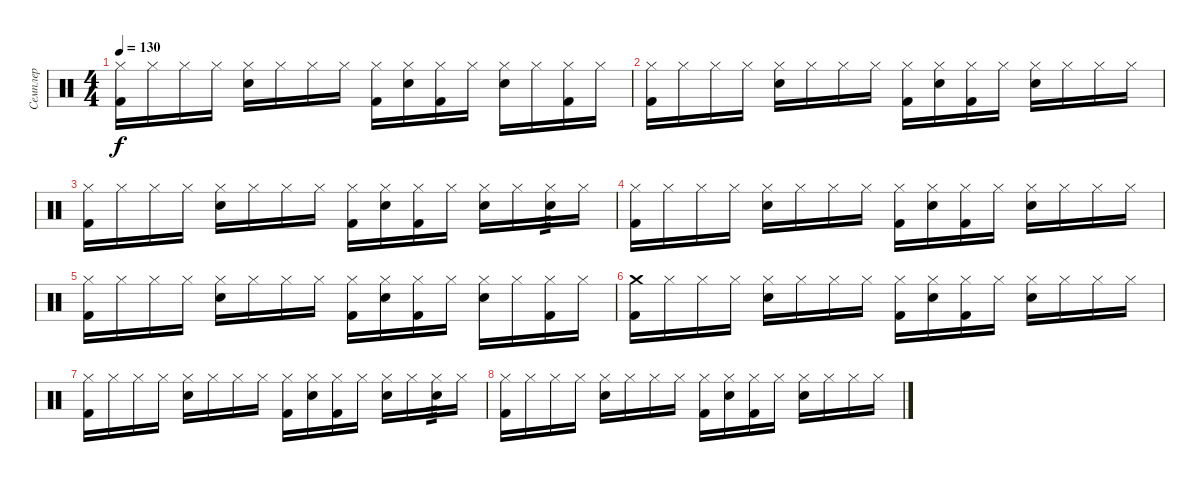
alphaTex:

\track ("Семплер" "Семплер") {instrument percussion}
\staff {score}
\articulation defaults
\ts (4 4)
\tempo 130
\clef neutral
\ks c
("Hi-Hat (closed)" "Kick (hit) 2").16{dy f} "Hi-Hat (closed)".16 "Hi-Hat (closed)".16 "Hi-Hat (closed)".16 ("Hi-Hat (closed)" "Snare (hit) 2").16 "Hi-Hat (closed)".16 "Hi-Hat (closed)".16 "Hi-Hat (closed)".16 ("Hi-Hat (closed)" "Kick (hit) 2").16 ("Hi-Hat (closed)" "Snare (hit) 2").16 ("Hi-Hat (closed)" "Kick (hit) 2").16 "Hi-Hat (closed)".16 ("Hi-Hat (closed)" "Snare (hit) 2").16 "Hi-Hat (closed)".16 ("Hi-Hat (closed)" "Kick (hit) 2").16 "Hi-Hat (closed)".16 |
("Hi-Hat (closed)" "Kick (hit) 2").16 "Hi-Hat (closed)".16 "Hi-Hat (closed)".16 "Hi-Hat (closed)".16 ("Hi-Hat (closed)" "Snare (hit) 2").16 "Hi-Hat (closed)".16 "Hi-Hat (closed)".16 "Hi-Hat (closed)".16 ("Hi-Hat (closed)" "Kick (hit) 2").16 ("Hi-Hat (closed)" "Snare (hit) 2").16 ("Hi-Hat (closed)" "Kick (hit) 2").16 "Hi-Hat (closed)".16 ("Hi-Hat (closed)" "Snare (hit) 2").16 "Hi-Hat (closed)".16 "Hi-Hat (closed)".16 "Hi-Hat (closed)".16 |
("Hi-Hat (closed)" "Kick (hit) 2").16 "Hi-Hat (closed)".16 "Hi-Hat (closed)".16 "Hi-Hat (closed)".16 ("Hi-Hat (closed)" "Snare (hit) 2").16 "Hi-Hat (closed)".16 "Hi-Hat (closed)".16 "Hi-Hat (closed)".16 ("Hi-Hat (closed)" "Kick (hit) 2").16 ("Hi-Hat (closed)" "Snare (hit) 2").16 ("Hi-Hat (closed)" "Kick (hit) 2").16 "Hi-Hat (closed)".16 ("Hi-Hat (closed)" "Snare (hit) 2").16 "Hi-Hat (closed)".16 ("Hi-Hat (closed)" "Snare (hit) 2").16{tp 3} "Hi-Hat (closed)".16 |
("Hi-Hat (closed)" "Kick (hit) 2").16 "Hi-Hat (closed)".16 "Hi-Hat (closed)".16 "Hi-Hat (closed)".16 ("Hi-Hat (closed)" "Snare (hit) 2").16 "Hi-Hat (closed)".16 "Hi-Hat (closed)".16 "Hi-Hat (closed)".16 ("Hi-Hat (closed)" "Kick (hit) 2").16 ("Hi-Hat (closed)" "Snare (hit) 2").16 ("Hi-Hat (closed)" "Kick (hit) 2").16 "Hi-Hat (closed)".16 ("Hi-Hat (closed)" "Snare (hit) 2").16 "Hi-Hat (closed)".16 "Hi-Hat (closed)".16 "Hi-Hat (closed)".16 |
("Hi-Hat (closed)" "Kick (hit) 2").16 "Hi-Hat (closed)".16 "Hi-Hat (closed)".16 "Hi-Hat (closed)".16 ("Hi-Hat (closed)" "Snare (hit) 2").16 "Hi-Hat (closed)".16 "Hi-Hat (closed)".16 "Hi-Hat (closed)".16 ("Hi-Hat (closed)" "Kick (hit) 2").16 ("Hi-Hat (closed)" "Snare (hit) 2").16 ("Hi-Hat (closed)" "Kick (hit) 2").16 "Hi-Hat (closed)".16 ("Hi-Hat (closed)" "Snare (hit) 2").16 "Hi-Hat (closed)".16 ("Hi-Hat (closed)" "Kick (hit) 2").16 "Hi-Hat (closed)".16 |
("Crash medium (hit)" "Kick (hit) 2").16 "Hi-Hat (closed)".16 "Hi-Hat (closed)".16 "Hi-Hat (closed)".16 ("Hi-Hat (closed)" "Snare (hit) 2").16 "Hi-Hat (closed)".16 "Hi-Hat (closed)".16 "Hi-Hat (closed)".16 ("Hi-Hat (closed)" "Kick (hit) 2").16 ("Hi-Hat (closed)" "Snare (hit) 2").16 ("Hi-Hat (closed)" "Kick (hit) 2").16 "Hi-Hat (closed)".16 ("Hi-Hat (closed)" "Snare (hit) 2").16 "Hi-Hat (closed)".16 "Hi-Hat (closed)".16 "Hi-Hat (closed)".16 |
("Hi-Hat (closed)" "Kick (hit) 2").16 "Hi-Hat (closed)".16 "Hi-Hat (closed)".16 "Hi-Hat (closed)".16 ("Hi-Hat (closed)" "Snare (hit) 2").16 "Hi-Hat (closed)".16 "Hi-Hat (closed)".16 "Hi-Hat (closed)".16 ("Hi-Hat (closed)" "Kick (hit) 2").16 ("Hi-Hat (closed)" "Snare (hit) 2").16 ("Hi-Hat (closed)" "Kick (hit) 2").16 "Hi-Hat (closed)".16 ("Hi-Hat (closed)" "Snare (hit) 2").16 "Hi-Hat (closed)".16 ("Hi-Hat (closed)" "Snare (hit) 2").16{tp 3} "Hi-Hat (closed)".16 |
("Hi-Hat (closed)" "Kick (hit) 2").16 "Hi-Hat (closed)".16 "Hi-Hat (closed)".16 "Hi-Hat (closed)".16 ("Hi-Hat (closed)" "Snare (hit) 2").16 "Hi-Hat (closed)".16 "Hi-Hat (closed)".16 "Hi-Hat (closed)".16 ("Hi-Hat (closed)" "Kick (hit) 2").16 ("Hi-Hat (closed)" "Snare (hit) 2").16 ("Hi-Hat (closed)" "Kick (hit) 2").16 "Hi-Hat (closed)".16 ("Hi-Hat (closed)" "Snare (hit) 2").16 "Hi-Hat (closed)".16 "Hi-Hat (closed)".16 "Hi-Hat (closed)".16
